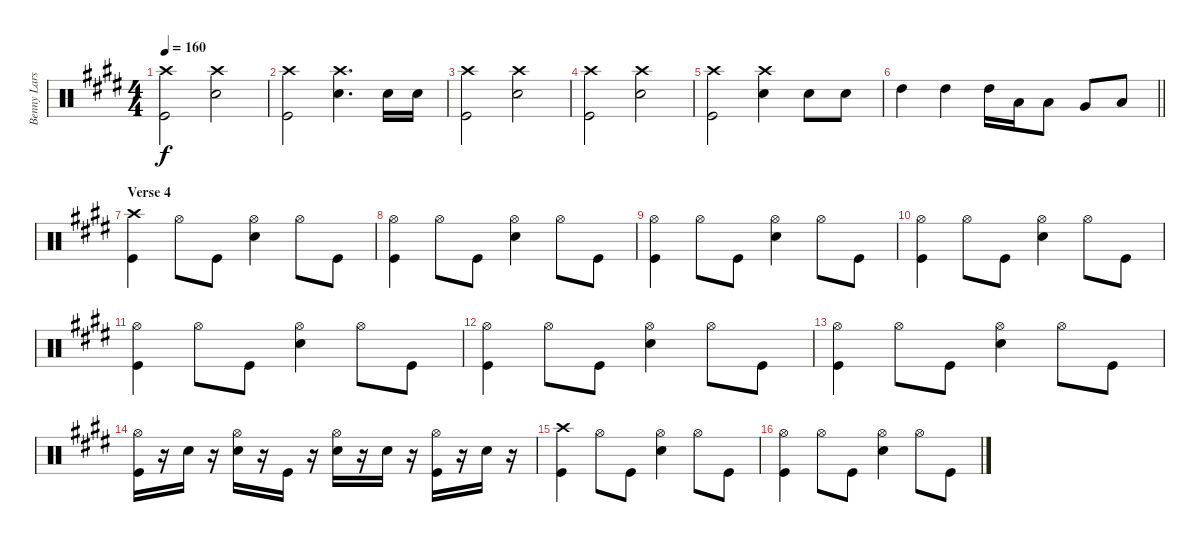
\track ("Benny Larsson" "Benny Lars") {instrument percussion}
\staff {score}
\articulation defaults
\ts (4 4)
\tempo 160
\clef neutral
\ks e
("Crash high (hit)" "Kick (hit)").2{dy f} ("Crash high (hit)" "Snare (hit) 2").2 |
("Crash high (hit)" "Kick (hit)").2 ("Crash high (hit)" "Snare (hit) 2").4{d} "Snare (hit) 2".16 "Snare (hit) 2".16 |
("Crash high (hit)" "Kick (hit)").2 ("Crash high (hit)" "Snare (hit) 2").2 |
("Crash high (hit)" "Kick (hit)").2 ("Crash high (hit)" "Snare (hit) 2").2 |
("Crash high (hit)" "Kick (hit)").2 ("Crash high (hit)" "Snare (hit) 2").4 "Snare (hit) 2".8 "Snare (hit) 2".8 |
\barLineRight lightlight "High Tom (hit)".4 "High Tom (hit)".4 "High Tom (hit)".16 "Low Tom (hit)".16 "Low Tom (hit)".8 "Very Low Tom (hit)".8 "Low Floor Tom (hit)".8
|
\section ("" "Verse 4")
("Crash high (hit)" "Kick (hit)").4 "Hi-Hat (open)".8 "Kick (hit)".8 ("Hi-Hat (open)" "Snare (hit) 2").4 "Hi-Hat (open)".8 "Kick (hit)".8 |
("Hi-Hat (open)" "Kick (hit)").4 "Hi-Hat (open)".8 "Kick (hit)".8 ("Hi-Hat (open)" "Snare (hit) 2").4 "Hi-Hat (open)".8 "Kick (hit)".8 |
("Hi-Hat (open)" "Kick (hit)").4 "Hi-Hat (open)".8 "Kick (hit)".8 ("Hi-Hat (open)" "Snare (hit) 2").4 "Hi-Hat (open)".8 "Kick (hit)".8 |
("Hi-Hat (open)" "Kick (hit)").4 "Hi-Hat (open)".8 "Kick (hit)".8 ("Hi-Hat (open)" "Snare (hit) 2").4 "Hi-Hat (open)".8 "Kick (hit)".8 |
("Hi-Hat (open)" "Kick (hit)").4 "Hi-Hat (open)".8 "Kick (hit)".8 ("Hi-Hat (open)" "Snare (hit) 2").4 "Hi-Hat (open)".8 "Kick (hit)".8 |
("Hi-Hat (open)" "Kick (hit)").4 "Hi-Hat (open)".8 "Kick (hit)".8 ("Hi-Hat (open)" "Snare (hit) 2").4 "Hi-Hat (open)".8 "Kick (hit)".8 |
("Hi-Hat (open)" "Kick (hit)").4 "Hi-Hat (open)".8 "Kick (hit)".8 ("Hi-Hat (open)" "Snare (hit) 2").4 "Hi-Hat (open)".8 "Kick (hit)".8 |
("Hi-Hat (open)" "Kick (hit)").16 r.16 "Snare (hit) 2".16 r.16 ("Hi-Hat (open)" "Snare (hit) 2").16 r.16 "Kick (hit)".16 r.16 ("Hi-Hat (open)" "Snare (hit) 2").16 r.16 "Snare (hit) 2".16 r.16 ("Hi-Hat (open)" "Kick (hit)").16 r.16 "Snare (hit) 2".16 r.16 |
("Crash high (hit)" "Kick (hit)").4 "Hi-Hat (open)".8 "Kick (hit)".8 ("Hi-Hat (open)" "Snare (hit) 2").4 "Hi-Hat (open)".8 "Kick (hit)".8 |
("Hi-Hat (open)" "Kick (hit)").4 "Hi-Hat (open)".8 "Kick (hit)".8 ("Hi-Hat (open)" "Snare (hit) 2").4 "Hi-Hat (open)".8 "Kick (hit)".8
